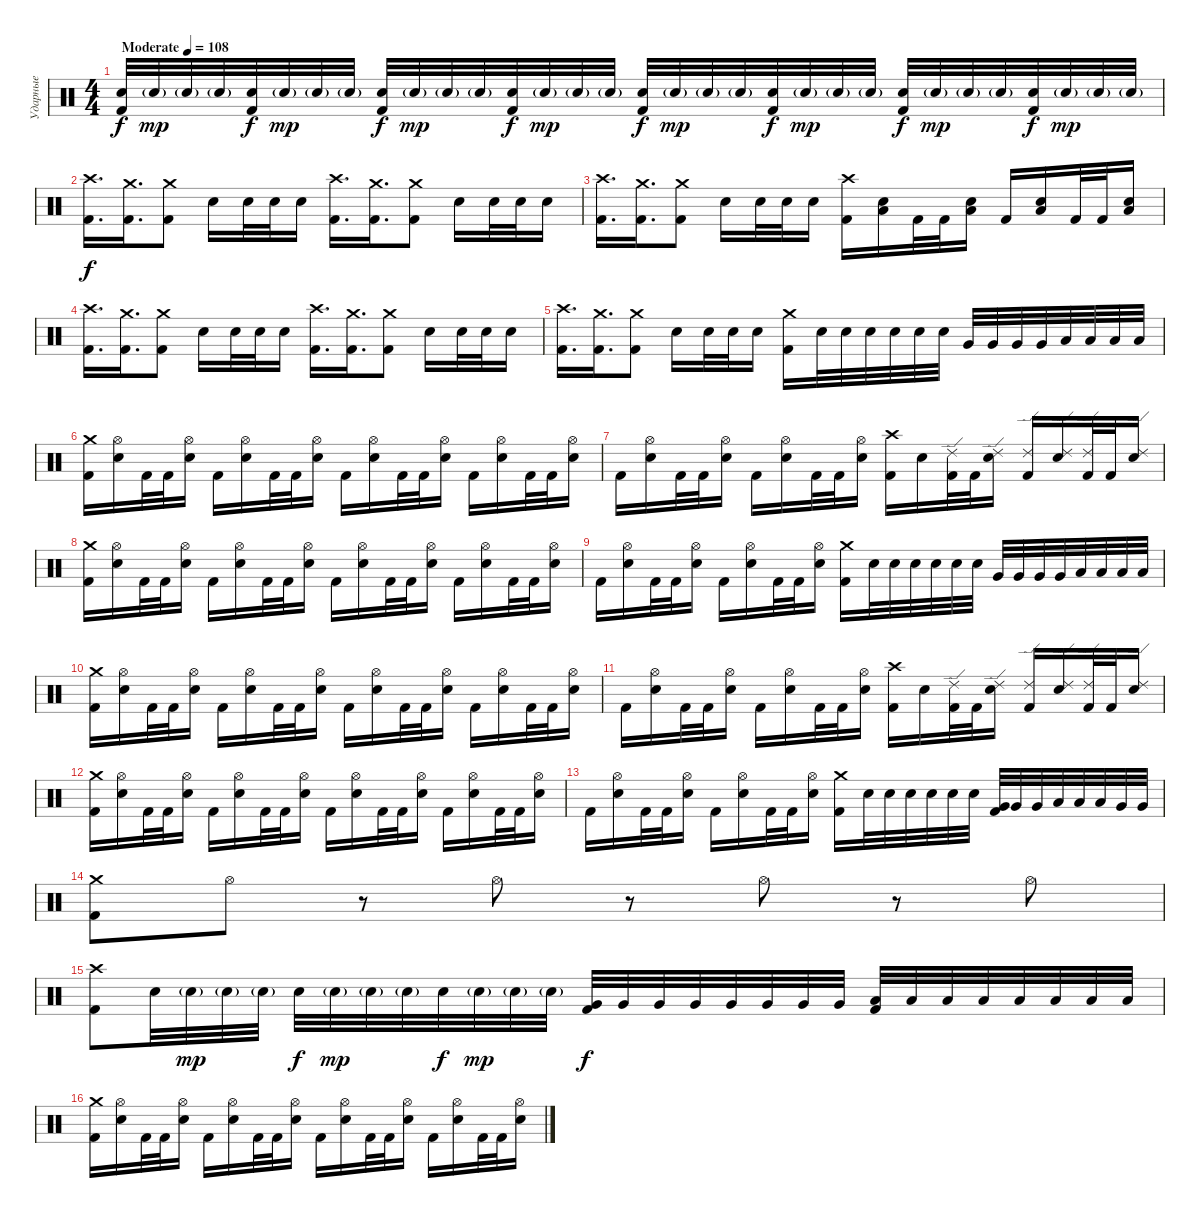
\track ("Ударные" "Ударные") {instrument percussion}
\staff {score}
\articulation defaults
\ts (4 4)
\tempo (108 "Moderate")
\clef neutral
\ks c
("Electric Snare (hit)" "Kick (hit) 2").32{dy f} "Electric Snare (hit)"{g}.32{dy mp} "Electric Snare (hit)"{g}.32 "Electric Snare (hit)"{g}.32 ("Electric Snare (hit)" "Kick (hit) 2").32{dy f} "Electric Snare (hit)"{g}.32{dy mp} "Electric Snare (hit)"{g}.32 "Electric Snare (hit)"{g}.32 ("Electric Snare (hit)" "Kick (hit) 2").32{dy f} "Electric Snare (hit)"{g}.32{dy mp} "Electric Snare (hit)"{g}.32 "Electric Snare (hit)"{g}.32 ("Electric Snare (hit)" "Kick (hit) 2").32{dy f} "Electric Snare (hit)"{g}.32{dy mp} "Electric Snare (hit)"{g}.32 "Electric Snare (hit)"{g}.32 ("Electric Snare (hit)" "Kick (hit) 2").32{dy f} "Electric Snare (hit)"{g}.32{dy mp} "Electric Snare (hit)"{g}.32 "Electric Snare (hit)"{g}.32 ("Electric Snare (hit)" "Kick (hit) 2").32{dy f} "Electric Snare (hit)"{g}.32{dy mp} "Electric Snare (hit)"{g}.32 "Electric Snare (hit)"{g}.32 ("Electric Snare (hit)" "Kick (hit) 2").32{dy f} "Electric Snare (hit)"{g}.32{dy mp} "Electric Snare (hit)"{g}.32 "Electric Snare (hit)"{g}.32 ("Electric Snare (hit)" "Kick (hit) 2").32{dy f} "Electric Snare (hit)"{g}.32{dy mp} "Electric Snare (hit)"{g}.32 "Electric Snare (hit)"{g}.32 |
("Crash high (hit)" "Kick (hit) 2").16{d dy f} ("Crash medium (hit)" "Kick (hit) 2").16{d} ("Crash medium (hit)" "Kick (hit) 2").8 "Electric Snare (hit)".16 "Electric Snare (hit)".32 "Electric Snare (hit)".32 "Electric Snare (hit)".16 ("Crash high (hit)" "Kick (hit) 2").16{d} ("Crash medium (hit)" "Kick (hit) 2").16{d} ("Crash medium (hit)" "Kick (hit) 2").8 "Electric Snare (hit)".16 "Electric Snare (hit)".32 "Electric Snare (hit)".32 "Electric Snare (hit)".16 |
("Crash high (hit)" "Kick (hit) 2").16{d} ("Crash medium (hit)" "Kick (hit) 2").16{d} ("Crash medium (hit)" "Kick (hit) 2").8 "Electric Snare (hit)".16 "Electric Snare (hit)".32 "Electric Snare (hit)".32 "Electric Snare (hit)".16 ("Crash high (hit)" "Kick (hit) 2").16 ("Low Floor Tom (hit)" "Electric Snare (hit)").16 "Kick (hit) 2".32 "Kick (hit) 2".32 ("Low Floor Tom (hit)" "Electric Snare (hit)").16 "Kick (hit) 2".16 ("Low Floor Tom (hit)" "Electric Snare (hit)").16 "Kick (hit) 2".32 "Kick (hit) 2".32 ("Low Floor Tom (hit)" "Electric Snare (hit)").16 |
("Crash high (hit)" "Kick (hit) 2").16{d} ("Crash medium (hit)" "Kick (hit) 2").16{d} ("Crash medium (hit)" "Kick (hit) 2").8 "Electric Snare (hit)".16 "Electric Snare (hit)".32 "Electric Snare (hit)".32 "Electric Snare (hit)".16 ("Crash high (hit)" "Kick (hit) 2").16{d} ("Crash medium (hit)" "Kick (hit) 2").16{d} ("Crash medium (hit)" "Kick (hit) 2").8 "Electric Snare (hit)".16 "Electric Snare (hit)".32 "Electric Snare (hit)".32 "Electric Snare (hit)".16 |
("Crash high (hit)" "Kick (hit) 2").16{d} ("Crash medium (hit)" "Kick (hit) 2").16{d} ("Crash medium (hit)" "Kick (hit) 2").8 "Electric Snare (hit)".16 "Electric Snare (hit)".32 "Electric Snare (hit)".32 "Electric Snare (hit)".16 ("Crash medium (hit)" "Kick (hit) 2").16 "Electric Snare (hit)".32 "Electric Snare (hit)".32 "Electric Snare (hit)".32 "Electric Snare (hit)".32 "Electric Snare (hit)".32 "Electric Snare (hit)".32 "Very Low Tom (hit)".32 "Very Low Tom (hit)".32 "Very Low Tom (hit)".32 "Very Low Tom (hit)".32 "Low Floor Tom (hit)".32 "Low Floor Tom (hit)".32 "Low Floor Tom (hit)".32 "Low Floor Tom (hit)".32 |
("Crash medium (hit)" "Kick (hit) 2").16 ("Hi-Hat (open)" "Electric Snare (hit)").16 "Kick (hit) 2".32 "Kick (hit) 2".32 ("Hi-Hat (open)" "Electric Snare (hit)").16 "Kick (hit) 2".16 ("Hi-Hat (open)" "Electric Snare (hit)").16 "Kick (hit) 2".32 "Kick (hit) 2".32 ("Hi-Hat (open)" "Electric Snare (hit)").16 "Kick (hit) 2".16 ("Hi-Hat (open)" "Electric Snare (hit)").16 "Kick (hit) 2".32 "Kick (hit) 2".32 ("Hi-Hat (open)" "Electric Snare (hit)").16 "Kick (hit) 2".16 ("Hi-Hat (open)" "Electric Snare (hit)").16 "Kick (hit) 2".32 "Kick (hit) 2".32 ("Hi-Hat (open)" "Electric Snare (hit)").16 |
"Kick (hit) 2".16 ("Hi-Hat (open)" "Electric Snare (hit)").16 "Kick (hit) 2".32 "Kick (hit) 2".32 ("Hi-Hat (open)" "Electric Snare (hit)").16 "Kick (hit) 2".16 ("Hi-Hat (open)" "Electric Snare (hit)").16 "Kick (hit) 2".32 "Kick (hit) 2".32 ("Hi-Hat (open)" "Electric Snare (hit)").16 ("Crash high (hit)" "Kick (hit) 2").16 "Electric Snare (hit)".16 ("Ride (edge) 2" "Kick (hit) 2").32 "Kick (hit) 2".32 ("Ride (edge) 2" "Electric Snare (hit)").16 ("Ride (edge) 2" "Kick (hit) 2").16 ("Ride (edge) 2" "Electric Snare (hit)").16 ("Ride (edge) 2" "Kick (hit) 2").32 "Kick (hit) 2".32 ("Ride (edge) 2" "Electric Snare (hit)").16 |
("Crash medium (hit)" "Kick (hit) 2").16 ("Hi-Hat (open)" "Electric Snare (hit)").16 "Kick (hit) 2".32 "Kick (hit) 2".32 ("Hi-Hat (open)" "Electric Snare (hit)").16 "Kick (hit) 2".16 ("Hi-Hat (open)" "Electric Snare (hit)").16 "Kick (hit) 2".32 "Kick (hit) 2".32 ("Hi-Hat (open)" "Electric Snare (hit)").16 "Kick (hit) 2".16 ("Hi-Hat (open)" "Electric Snare (hit)").16 "Kick (hit) 2".32 "Kick (hit) 2".32 ("Hi-Hat (open)" "Electric Snare (hit)").16 "Kick (hit) 2".16 ("Hi-Hat (open)" "Electric Snare (hit)").16 "Kick (hit) 2".32 "Kick (hit) 2".32 ("Hi-Hat (open)" "Electric Snare (hit)").16 |
"Kick (hit) 2".16 ("Hi-Hat (open)" "Electric Snare (hit)").16 "Kick (hit) 2".32 "Kick (hit) 2".32 ("Hi-Hat (open)" "Electric Snare (hit)").16 "Kick (hit) 2".16 ("Hi-Hat (open)" "Electric Snare (hit)").16 "Kick (hit) 2".32 "Kick (hit) 2".32 ("Hi-Hat (open)" "Electric Snare (hit)").16 ("Crash medium (hit)" "Kick (hit) 2").16 "Electric Snare (hit)".32 "Electric Snare (hit)".32 "Electric Snare (hit)".32 "Electric Snare (hit)".32 "Electric Snare (hit)".32 "Electric Snare (hit)".32 "Very Low Tom (hit)".32 "Very Low Tom (hit)".32 "Very Low Tom (hit)".32 "Very Low Tom (hit)".32 "Low Floor Tom (hit)".32 "Low Floor Tom (hit)".32 "Low Floor Tom (hit)".32 "Low Floor Tom (hit)".32 |
("Crash medium (hit)" "Kick (hit) 2").16 ("Hi-Hat (open)" "Electric Snare (hit)").16 "Kick (hit) 2".32 "Kick (hit) 2".32 ("Hi-Hat (open)" "Electric Snare (hit)").16 "Kick (hit) 2".16 ("Hi-Hat (open)" "Electric Snare (hit)").16 "Kick (hit) 2".32 "Kick (hit) 2".32 ("Hi-Hat (open)" "Electric Snare (hit)").16 "Kick (hit) 2".16 ("Hi-Hat (open)" "Electric Snare (hit)").16 "Kick (hit) 2".32 "Kick (hit) 2".32 ("Hi-Hat (open)" "Electric Snare (hit)").16 "Kick (hit) 2".16 ("Hi-Hat (open)" "Electric Snare (hit)").16 "Kick (hit) 2".32 "Kick (hit) 2".32 ("Hi-Hat (open)" "Electric Snare (hit)").16 |
"Kick (hit) 2".16 ("Hi-Hat (open)" "Electric Snare (hit)").16 "Kick (hit) 2".32 "Kick (hit) 2".32 ("Hi-Hat (open)" "Electric Snare (hit)").16 "Kick (hit) 2".16 ("Hi-Hat (open)" "Electric Snare (hit)").16 "Kick (hit) 2".32 "Kick (hit) 2".32 ("Hi-Hat (open)" "Electric Snare (hit)").16 ("Crash high (hit)" "Kick (hit) 2").16 "Electric Snare (hit)".16 ("Ride (edge) 2" "Kick (hit) 2").32 "Kick (hit) 2".32 ("Ride (edge) 2" "Electric Snare (hit)").16 ("Ride (edge) 2" "Kick (hit) 2").16 ("Ride (edge) 2" "Electric Snare (hit)").16 ("Ride (edge) 2" "Kick (hit) 2").32 "Kick (hit) 2".32 ("Ride (edge) 2" "Electric Snare (hit)").16 |
("Crash medium (hit)" "Kick (hit) 2").16 ("Hi-Hat (open)" "Electric Snare (hit)").16 "Kick (hit) 2".32 "Kick (hit) 2".32 ("Hi-Hat (open)" "Electric Snare (hit)").16 "Kick (hit) 2".16 ("Hi-Hat (open)" "Electric Snare (hit)").16 "Kick (hit) 2".32 "Kick (hit) 2".32 ("Hi-Hat (open)" "Electric Snare (hit)").16 "Kick (hit) 2".16 ("Hi-Hat (open)" "Electric Snare (hit)").16 "Kick (hit) 2".32 "Kick (hit) 2".32 ("Hi-Hat (open)" "Electric Snare (hit)").16 "Kick (hit) 2".16 ("Hi-Hat (open)" "Electric Snare (hit)").16 "Kick (hit) 2".32 "Kick (hit) 2".32 ("Hi-Hat (open)" "Electric Snare (hit)").16 |
"Kick (hit) 2".16 ("Hi-Hat (open)" "Electric Snare (hit)").16 "Kick (hit) 2".32 "Kick (hit) 2".32 ("Hi-Hat (open)" "Electric Snare (hit)").16 "Kick (hit) 2".16 ("Hi-Hat (open)" "Electric Snare (hit)").16 "Kick (hit) 2".32 "Kick (hit) 2".32 ("Hi-Hat (open)" "Electric Snare (hit)").16 ("Crash medium (hit)" "Kick (hit) 2").16 "Electric Snare (hit)".32 "Electric Snare (hit)".32 "Electric Snare (hit)".32 "Electric Snare (hit)".32 "Electric Snare (hit)".32 "Electric Snare (hit)".32 ("Very Low Tom (hit)" "Kick (hit) 2").32 "Very Low Tom (hit)".32 "Very Low Tom (hit)".32 "Low Floor Tom (hit)".32 "Low Floor Tom (hit)".32 "Low Floor Tom (hit)".32 "Very Low Tom (hit)".32 "Very Low Tom (hit)".32 |
("Crash medium (hit)" "Kick (hit) 2").8 "Hi-Hat (open)".8 r.8 "Hi-Hat (open)".8 r.8 "Hi-Hat (open)".8 r.8 "Hi-Hat (open)".8 |
("Crash high (hit)" "Kick (hit) 2").8 "Electric Snare (hit)".32 "Electric Snare (hit)"{g}.32{dy mp} "Electric Snare (hit)"{g}.32 "Electric Snare (hit)"{g}.32 "Electric Snare (hit)".32{dy f} "Electric Snare (hit)"{g}.32{dy mp} "Electric Snare (hit)"{g}.32 "Electric Snare (hit)"{g}.32 "Electric Snare (hit)".32{dy f} "Electric Snare (hit)"{g}.32{dy mp} "Electric Snare (hit)"{g}.32 "Electric Snare (hit)"{g}.32 ("Very Low Tom (hit)" "Kick (hit) 2").32{dy f} "Very Low Tom (hit)".32 "Very Low Tom (hit)".32 "Very Low Tom (hit)".32 "Very Low Tom (hit)".32 "Very Low Tom (hit)".32 "Very Low Tom (hit)".32 "Very Low Tom (hit)".32 ("Low Floor Tom (hit)" "Kick (hit) 2").32 "Low Floor Tom (hit)".32 "Low Floor Tom (hit)".32 "Low Floor Tom (hit)".32 "Low Floor Tom (hit)".32 "Low Floor Tom (hit)".32 "Low Floor Tom (hit)".32 "Low Floor Tom (hit)".32 |
("Crash medium (hit)" "Kick (hit) 2").16 ("Hi-Hat (open)" "Electric Snare (hit)").16 "Kick (hit) 2".32 "Kick (hit) 2".32 ("Hi-Hat (open)" "Electric Snare (hit)").16 "Kick (hit) 2".16 ("Hi-Hat (open)" "Electric Snare (hit)").16 "Kick (hit) 2".32 "Kick (hit) 2".32 ("Hi-Hat (open)" "Electric Snare (hit)").16 "Kick (hit) 2".16 ("Hi-Hat (open)" "Electric Snare (hit)").16 "Kick (hit) 2".32 "Kick (hit) 2".32 ("Hi-Hat (open)" "Electric Snare (hit)").16 "Kick (hit) 2".16 ("Hi-Hat (open)" "Electric Snare (hit)").16 "Kick (hit) 2".32 "Kick (hit) 2".32 ("Hi-Hat (open)" "Electric Snare (hit)").16
